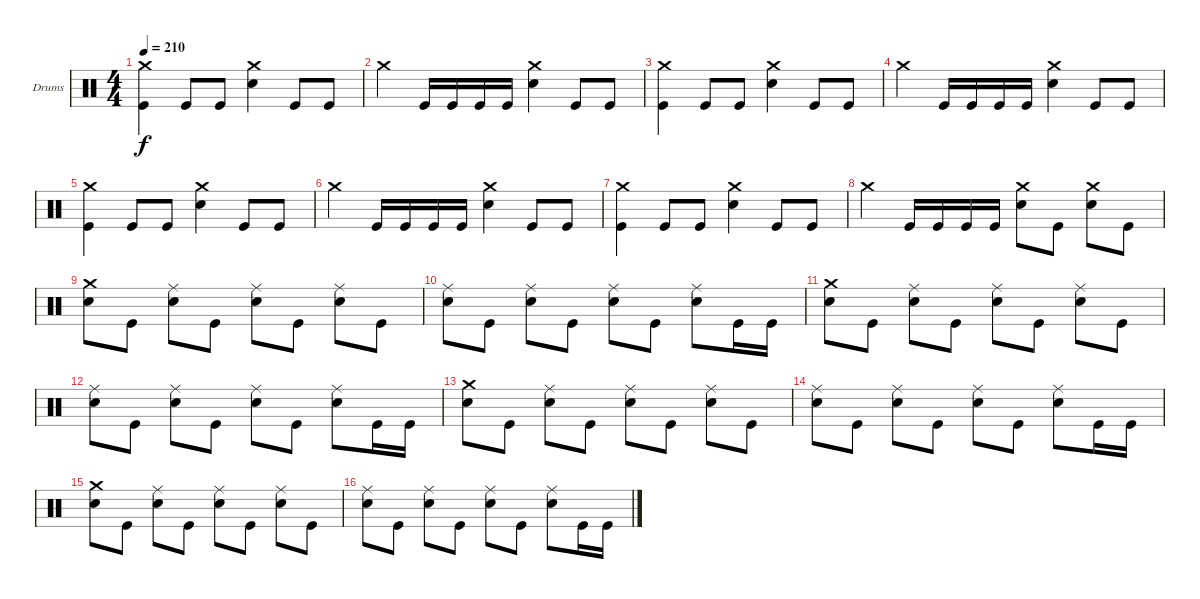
\bracketExtendMode groupsimilarinstruments
\firstSystemTrackNameOrientation horizontal
\otherSystemsTrackNameOrientation horizontal
\track ("Drumkit" "Drums") {instrument percussion}
\staff {score}
\articulation defaults
\ts (4 4)
\tempo 210
\clef neutral
\ks c
("Crash medium (hit)" "Kick (hit)").4{dy f} "Kick (hit)".8 "Kick (hit)".8 ("Crash medium (hit)" "Snare (hit) 2").4 "Kick (hit)".8 "Kick (hit)".8 |
"Crash medium (hit)".4 "Kick (hit)".16 "Kick (hit)".16 "Kick (hit)".16 "Kick (hit)".16 ("Crash medium (hit)" "Snare (hit) 2").4 "Kick (hit)".8 "Kick (hit)".8 |
("Crash medium (hit)" "Kick (hit)").4 "Kick (hit)".8 "Kick (hit)".8 ("Crash medium (hit)" "Snare (hit) 2").4 "Kick (hit)".8 "Kick (hit)".8 |
"Crash medium (hit)".4 "Kick (hit)".16 "Kick (hit)".16 "Kick (hit)".16 "Kick (hit)".16 ("Crash medium (hit)" "Snare (hit) 2").4 "Kick (hit)".8 "Kick (hit)".8 |
("Crash medium (hit)" "Kick (hit)").4 "Kick (hit)".8 "Kick (hit)".8 ("Crash medium (hit)" "Snare (hit) 2").4 "Kick (hit)".8 "Kick (hit)".8 |
"Crash medium (hit)".4 "Kick (hit)".16 "Kick (hit)".16 "Kick (hit)".16 "Kick (hit)".16 ("Crash medium (hit)" "Snare (hit) 2").4 "Kick (hit)".8 "Kick (hit)".8 |
("Crash medium (hit)" "Kick (hit)").4 "Kick (hit)".8 "Kick (hit)".8 ("Crash medium (hit)" "Snare (hit) 2").4 "Kick (hit)".8 "Kick (hit)".8 |
"Crash medium (hit)".4 "Kick (hit)".16 "Kick (hit)".16 "Kick (hit)".16 "Kick (hit)".16 ("Crash medium (hit)" "Snare (hit) 2").8 "Kick (hit)".8 ("Crash medium (hit)" "Snare (hit) 2").8 "Kick (hit)".8 |
("Crash medium (hit)" "Snare (hit) 2").8 "Kick (hit)".8 ("Ride (middle)" "Snare (hit) 2").8 "Kick (hit)".8 ("Ride (middle)" "Snare (hit) 2").8 "Kick (hit)".8 ("Ride (middle)" "Snare (hit) 2").8 "Kick (hit)".8 |
("Ride (middle)" "Snare (hit) 2").8 "Kick (hit)".8 ("Ride (middle)" "Snare (hit) 2").8 "Kick (hit)".8 ("Ride (middle)" "Snare (hit) 2").8 "Kick (hit)".8 ("Ride (middle)" "Snare (hit) 2").8 "Kick (hit)".16 "Kick (hit)".16 |
("Crash medium (hit)" "Snare (hit) 2").8 "Kick (hit)".8 ("Ride (middle)" "Snare (hit) 2").8 "Kick (hit)".8 ("Ride (middle)" "Snare (hit) 2").8 "Kick (hit)".8 ("Ride (middle)" "Snare (hit) 2").8 "Kick (hit)".8 |
("Ride (middle)" "Snare (hit) 2").8 "Kick (hit)".8 ("Ride (middle)" "Snare (hit) 2").8 "Kick (hit)".8 ("Ride (middle)" "Snare (hit) 2").8 "Kick (hit)".8 ("Ride (middle)" "Snare (hit) 2").8 "Kick (hit)".16 "Kick (hit)".16 |
("Crash medium (hit)" "Snare (hit) 2").8 "Kick (hit)".8 ("Ride (middle)" "Snare (hit) 2").8 "Kick (hit)".8 ("Ride (middle)" "Snare (hit) 2").8 "Kick (hit)".8 ("Ride (middle)" "Snare (hit) 2").8 "Kick (hit)".8 |
("Ride (middle)" "Snare (hit) 2").8 "Kick (hit)".8 ("Ride (middle)" "Snare (hit) 2").8 "Kick (hit)".8 ("Ride (middle)" "Snare (hit) 2").8 "Kick (hit)".8 ("Ride (middle)" "Snare (hit) 2").8 "Kick (hit)".16 "Kick (hit)".16 |
("Crash medium (hit)" "Snare (hit) 2").8 "Kick (hit)".8 ("Ride (middle)" "Snare (hit) 2").8 "Kick (hit)".8 ("Ride (middle)" "Snare (hit) 2").8 "Kick (hit)".8 ("Ride (middle)" "Snare (hit) 2").8 "Kick (hit)".8 |
("Ride (middle)" "Snare (hit) 2").8 "Kick (hit)".8 ("Ride (middle)" "Snare (hit) 2").8 "Kick (hit)".8 ("Ride (middle)" "Snare (hit) 2").8 "Kick (hit)".8 ("Ride (middle)" "Snare (hit) 2").8 "Kick (hit)".16 "Kick (hit)".16
